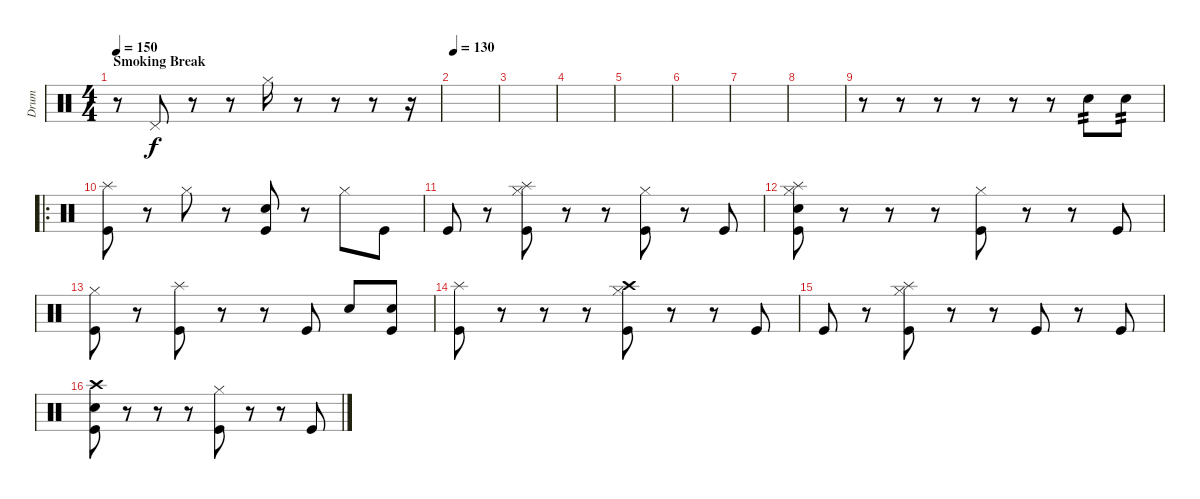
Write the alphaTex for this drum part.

\track ("Drum" "Drum") {instrument percussion}
\staff {score}
\articulation defaults
\ts (4 4)
\section ("" "Smoking Break")
\tempo 150
\clef neutral
\ks c
r.8{dy f} "Pedal Hi-Hat (hit)".8 r.8 r.8 "Hi-Hat (closed)".16 r.8 r.8 r.8 r.16 |
\tempo 130
|
|
|
|
|
|
|
r.8 r.8 r.8 r.8 r.8 r.8 "Snare (hit) 2".8{tp 2} "Snare (hit) 2".8{tp 2} |
\ro
("Splash (hit)" "Kick (hit)").8 r.8 "Hi-Hat (closed)".8 r.8 ("Snare (hit) 2" "Kick (hit)").8 r.8 "Hi-Hat (closed)".8 "Kick (hit)".8 |
"Kick (hit)".8 r.8 ("Splash (hit)" "Hi-Hat (closed)" "Kick (hit)").8 r.8 r.8 ("Hi-Hat (closed)" "Kick (hit)").8 r.8 "Kick (hit)".8 |
("Splash (hit)" "Snare (hit) 2" "Hi-Hat (closed)" "Kick (hit)").8 r.8 r.8 r.8 ("Hi-Hat (closed)" "Kick (hit)").8 r.8 r.8 "Kick (hit)".8 |
("Hi-Hat (closed)" "Kick (hit)").8 r.8 ("Splash (hit)" "Kick (hit)").8 r.8 r.8 "Kick (hit)".8 "Snare (hit) 2".8 ("Snare (hit) 2" "Kick (hit)").8 |
("Splash (hit)" "Kick (hit)").8 r.8 r.8 r.8 ("Crash high (hit)" "Hi-Hat (closed)" "Kick (hit)").8 r.8 r.8 "Kick (hit)".8 |
"Kick (hit)".8 r.8 ("Splash (hit)" "Hi-Hat (closed)" "Kick (hit)").8 r.8 r.8 "Kick (hit)".8 r.8 "Kick (hit)".8 |
("Crash high (hit)" "Snare (hit) 2" "Kick (hit)").8 r.8 r.8 r.8 ("Hi-Hat (closed)" "Kick (hit)").8 r.8 r.8 "Kick (hit)".8
